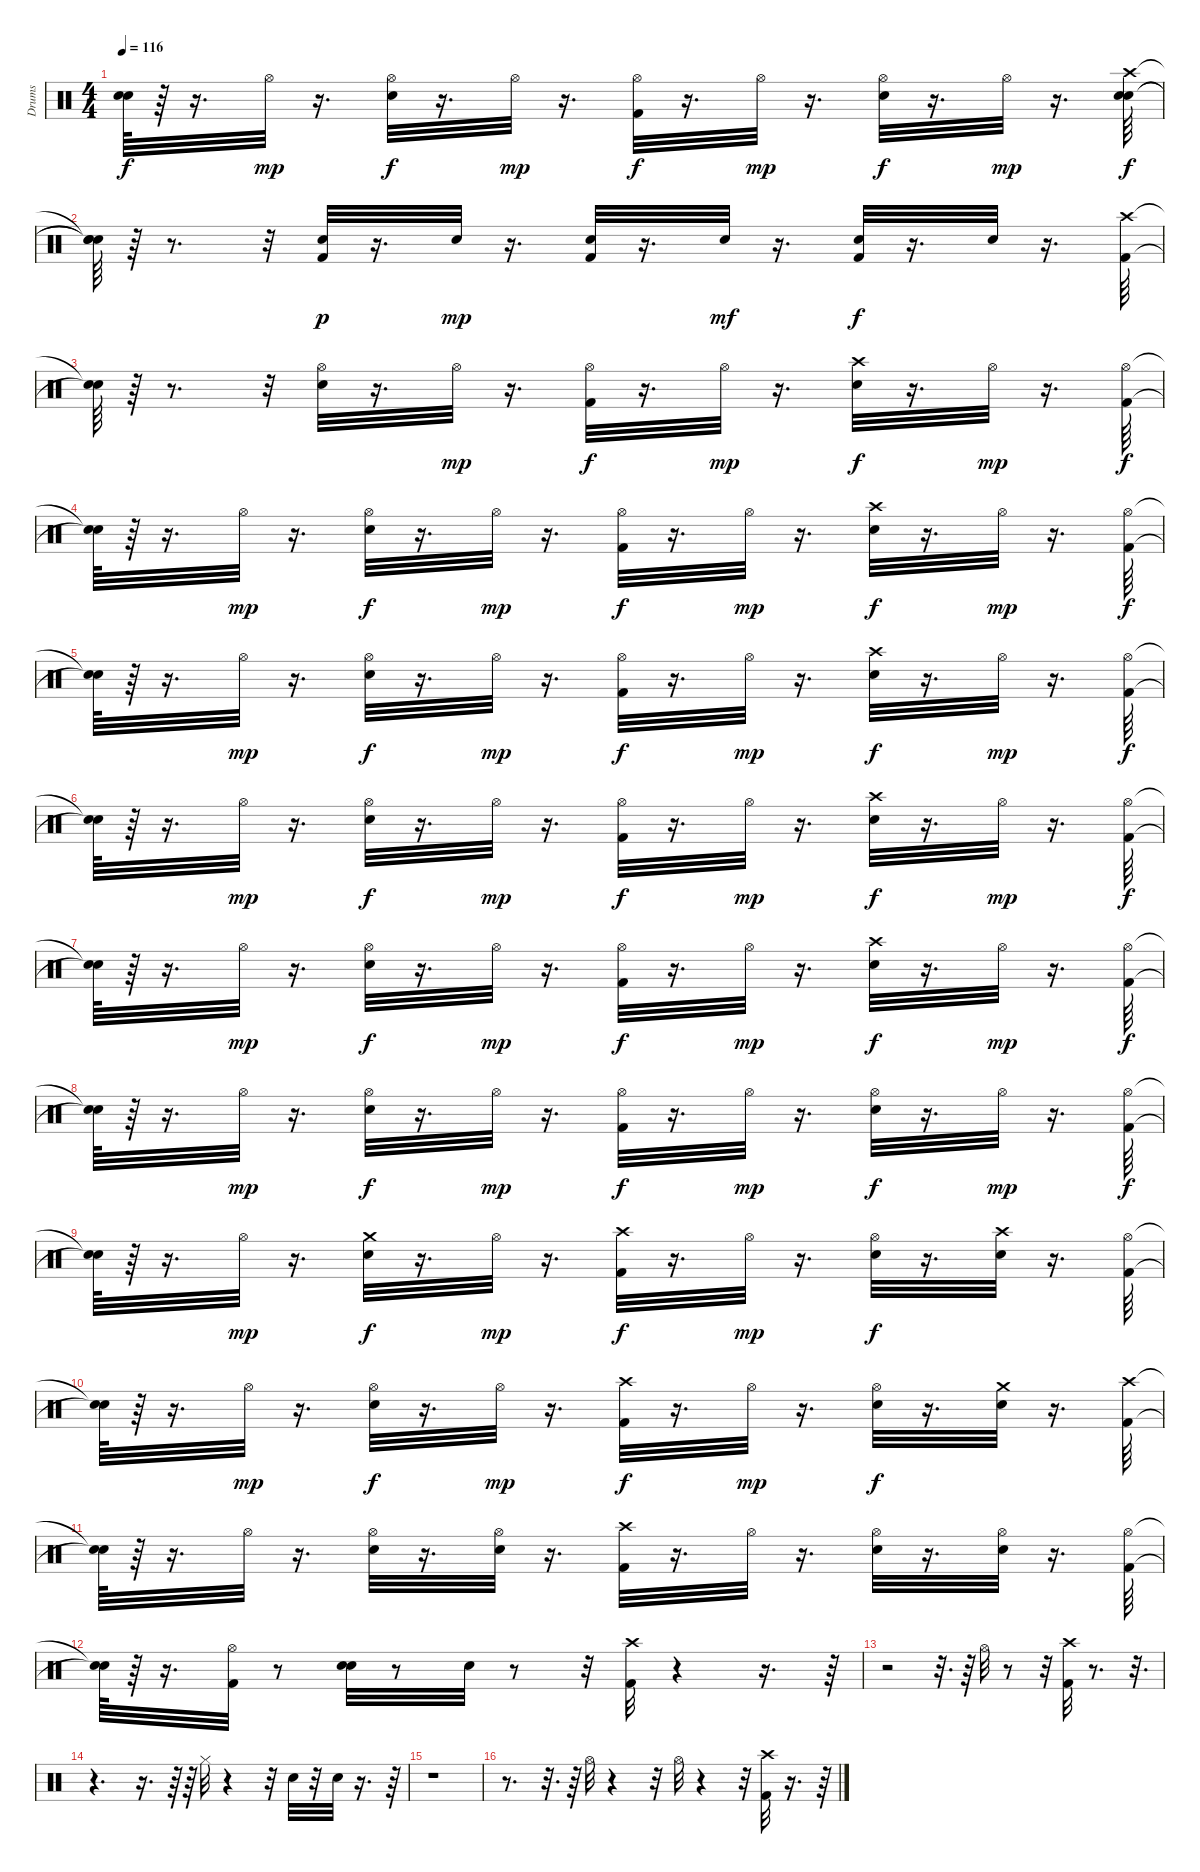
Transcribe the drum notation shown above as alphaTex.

\track ("Drums" "Drums") {instrument percussion}
\staff {score}
\articulation defaults
\ts (4 4)
\tempo 116
\clef neutral
\ks c
("Snare (hit)"{t} "Snare (hit)"{t}).64{dy f} r.64 r.16{d} "Hi-Hat (open)".32{dy mp} r.16{d} ("Electric Snare (hit)" "Hi-Hat (open)").32{dy f} r.16{d} "Hi-Hat (open)".32{dy mp} r.16{d} ("Kick (hit) 2" "Hi-Hat (open)").32{dy f} r.16{d} "Hi-Hat (open)".32{dy mp} r.16{d} ("Electric Snare (hit)" "Hi-Hat (open)").32{dy f} r.16{d} "Hi-Hat (open)".32{dy mp} r.16{d} ("Snare (hit) 2" "Crash high (hit)" "Electric Snare (hit)").64{dy f} |
("Snare (hit)"{t} "Snare (hit)"{t} "Snare (hit)"{t}).64 r.64 r.8{d} r.32 ("Electric Snare (hit)" "Kick (hit) 2").32{dy p} r.16{d} "Electric Snare (hit)".32{dy mp} r.16{d} ("Electric Snare (hit)" "Kick (hit) 2").32 r.16{d} "Electric Snare (hit)".32{dy mf} r.16{d} ("Kick (hit) 2" "Electric Snare (hit)").32{dy f} r.16{d} "Electric Snare (hit)".32 r.16{d} ("Crash high (hit)" "Kick (hit) 2").64 |
("Snare (hit)"{t} "Snare (hit)"{t}).64 r.64 r.8{d} r.32 ("Hi-Hat (open)" "Electric Snare (hit)").32 r.16{d} "Hi-Hat (open)".32{dy mp} r.16{d} ("Hi-Hat (open)" "Kick (hit) 2").32{dy f} r.16{d} "Hi-Hat (open)".32{dy mp} r.16{d} ("Crash high (hit)" "Electric Snare (hit)").32{dy f} r.16{d} "Hi-Hat (open)".32{dy mp} r.16{d} ("Kick (hit) 2" "Hi-Hat (open)").64{dy f} |
("Snare (hit)"{t} "Snare (hit)"{t}).64 r.64 r.16{d} "Hi-Hat (open)".32{dy mp} r.16{d} ("Electric Snare (hit)" "Hi-Hat (open)").32{dy f} r.16{d} "Hi-Hat (open)".32{dy mp} r.16{d} ("Kick (hit) 2" "Hi-Hat (open)").32{dy f} r.16{d} "Hi-Hat (open)".32{dy mp} r.16{d} ("Crash high (hit)" "Electric Snare (hit)").32{dy f} r.16{d} "Hi-Hat (open)".32{dy mp} r.16{d} ("Kick (hit) 2" "Hi-Hat (open)").64{dy f} |
("Snare (hit)"{t} "Snare (hit)"{t}).64 r.64 r.16{d} "Hi-Hat (open)".32{dy mp} r.16{d} ("Electric Snare (hit)" "Hi-Hat (open)").32{dy f} r.16{d} "Hi-Hat (open)".32{dy mp} r.16{d} ("Kick (hit) 2" "Hi-Hat (open)").32{dy f} r.16{d} "Hi-Hat (open)".32{dy mp} r.16{d} ("Crash high (hit)" "Electric Snare (hit)").32{dy f} r.16{d} "Hi-Hat (open)".32{dy mp} r.16{d} ("Kick (hit) 2" "Hi-Hat (open)").64{dy f} |
("Snare (hit)"{t} "Snare (hit)"{t}).64 r.64 r.16{d} "Hi-Hat (open)".32{dy mp} r.16{d} ("Electric Snare (hit)" "Hi-Hat (open)").32{dy f} r.16{d} "Hi-Hat (open)".32{dy mp} r.16{d} ("Kick (hit) 2" "Hi-Hat (open)").32{dy f} r.16{d} "Hi-Hat (open)".32{dy mp} r.16{d} ("Crash high (hit)" "Electric Snare (hit)").32{dy f} r.16{d} "Hi-Hat (open)".32{dy mp} r.16{d} ("Hi-Hat (open)" "Kick (hit) 2").64{dy f} |
("Snare (hit)"{t} "Snare (hit)"{t}).64 r.64 r.16{d} "Hi-Hat (open)".32{dy mp} r.16{d} ("Hi-Hat (open)" "Electric Snare (hit)").32{dy f} r.16{d} "Hi-Hat (open)".32{dy mp} r.16{d} ("Hi-Hat (open)" "Kick (hit) 2").32{dy f} r.16{d} "Hi-Hat (open)".32{dy mp} r.16{d} ("Crash high (hit)" "Electric Snare (hit)").32{dy f} r.16{d} "Hi-Hat (open)".32{dy mp} r.16{d} ("Kick (hit) 2" "Hi-Hat (open)").64{dy f} |
("Snare (hit)"{t} "Snare (hit)"{t}).64 r.64 r.16{d} "Hi-Hat (open)".32{dy mp} r.16{d} ("Electric Snare (hit)" "Hi-Hat (open)").32{dy f} r.16{d} "Hi-Hat (open)".32{dy mp} r.16{d} ("Kick (hit) 2" "Hi-Hat (open)").32{dy f} r.16{d} "Hi-Hat (open)".32{dy mp} r.16{d} ("Electric Snare (hit)" "Hi-Hat (open)").32{dy f} r.16{d} "Hi-Hat (open)".32{dy mp} r.16{d} ("Kick (hit) 2" "Hi-Hat (open)").64{dy f} |
("Snare (hit)"{t} "Snare (hit)"{t}).64 r.64 r.16{d} "Hi-Hat (open)".32{dy mp} r.16{d} ("Crash medium (hit)" "Electric Snare (hit)").32{dy f} r.16{d} "Hi-Hat (open)".32{dy mp} r.16{d} ("Crash high (hit)" "Kick (hit) 2").32{dy f} r.16{d} "Hi-Hat (open)".32{dy mp} r.16{d} ("Electric Snare (hit)" "Hi-Hat (open)").32{dy f} r.16{d} ("Crash high (hit)" "Electric Snare (hit)").32 r.16{d} ("Hi-Hat (open)" "Kick (hit) 2").64 |
("Snare (hit)"{t} "Snare (hit)"{t}).64 r.64 r.16{d} "Hi-Hat (open)".32{dy mp} r.16{d} ("Electric Snare (hit)" "Hi-Hat (open)").32{dy f} r.16{d} "Hi-Hat (open)".32{dy mp} r.16{d} ("Crash high (hit)" "Kick (hit) 2").32{dy f} r.16{d} "Hi-Hat (open)".32{dy mp} r.16{d} ("Electric Snare (hit)" "Hi-Hat (open)").32{dy f} r.16{d} ("Crash medium (hit)" "Electric Snare (hit)").32 r.16{d} ("Crash high (hit)" "Kick (hit) 2").64 |
("Snare (hit)"{t} "Snare (hit)"{t}).64 r.64 r.16{d} "Hi-Hat (open)".32 r.16{d} ("Hi-Hat (open)" "Electric Snare (hit)").32 r.16{d} ("Hi-Hat (open)" "Electric Snare (hit)").32 r.16{d} ("Crash high (hit)" "Kick (hit) 2").32 r.16{d} "Hi-Hat (open)".32 r.16{d} ("Hi-Hat (open)" "Electric Snare (hit)").32 r.16{d} ("Hi-Hat (open)" "Electric Snare (hit)").32 r.16{d} ("Hi-Hat (open)" "Kick (hit) 2").64 |
("Snare (hit)"{t} "Snare (hit)"{t}).64 r.64 r.16{d} ("Kick (hit) 2" "Hi-Hat (open)").32 r.8 ("Snare (hit) 2" "Electric Snare (hit)").32 r.8 "Electric Snare (hit)".32 r.8 r.32 ("Kick (hit) 2" "Crash high (hit)").32 r.4 r.16{d} r.64 |
r.2 r.32{d} r.64 "Hi-Hat (open)".32 r.8 r.32 ("Kick (hit) 2" "Crash high (hit)").32 r.8{d} r.32{d} |
r.4{d} r.16{d} r.64 r.64 "Hi-Hat (closed)".32 r.4 r.32 "Electric Snare (hit)".32 r.32 "Electric Snare (hit)".32 r.16{d} r.64 |
r.1 |
r.8{d} r.32{d} r.64 "Hi-Hat (open)".32 r.4 r.32 "Hi-Hat (open)".32 r.4 r.32 ("Crash high (hit)" "Kick (hit) 2").32 r.16{d} r.64
